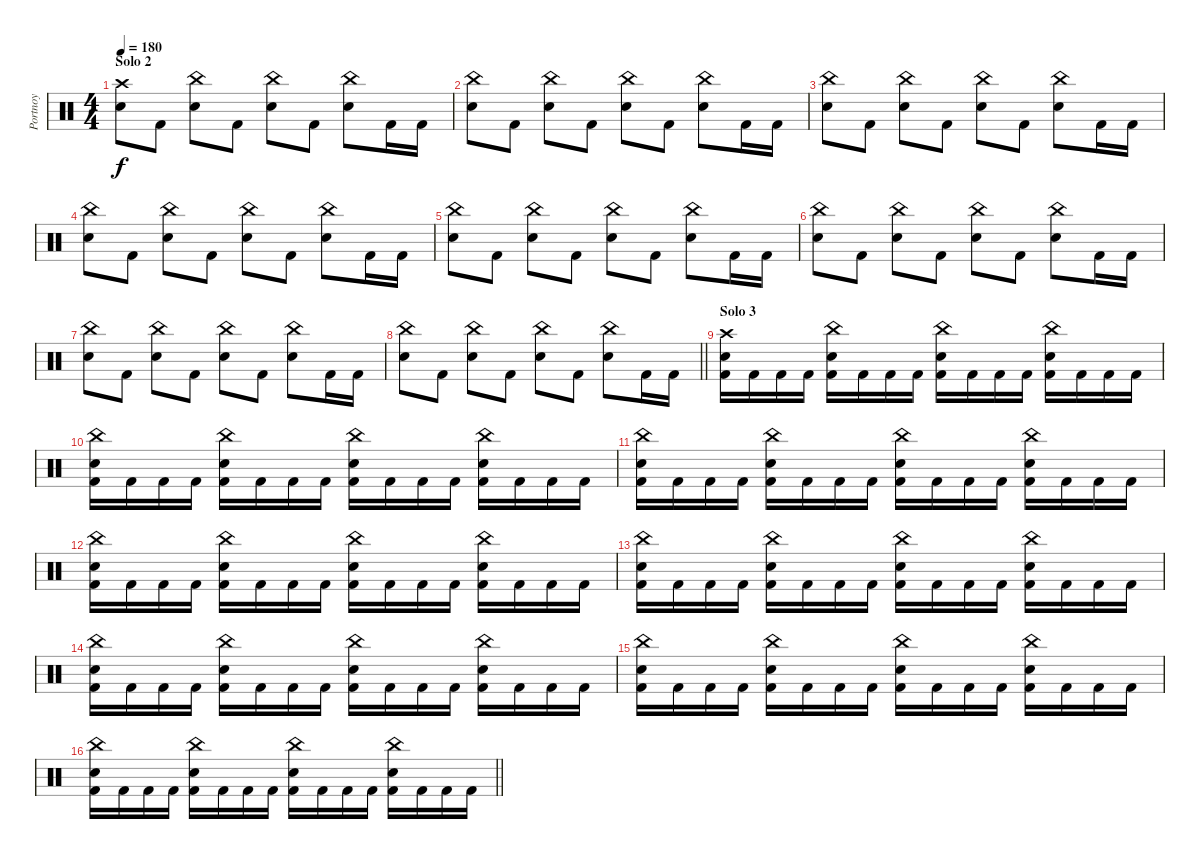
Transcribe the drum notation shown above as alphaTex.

\track ("Portnoy" "Portnoy") {instrument percussion}
\staff {score}
\articulation defaults
\ts (4 4)
\section ("" "Solo 2")
\tempo 180
\clef neutral
\ks c
("Crash high (hit)" "Electric Snare (hit)").8{dy f} "Kick (hit) 2".8 ("China (hit)" "Electric Snare (hit)").8 "Kick (hit) 2".8 ("China (hit)" "Electric Snare (hit)").8 "Kick (hit) 2".8 ("China (hit)" "Electric Snare (hit)").8 "Kick (hit) 2".16 "Kick (hit) 2".16 |
("China (hit)" "Electric Snare (hit)").8 "Kick (hit) 2".8 ("China (hit)" "Electric Snare (hit)").8 "Kick (hit) 2".8 ("China (hit)" "Electric Snare (hit)").8 "Kick (hit) 2".8 ("China (hit)" "Electric Snare (hit)").8 "Kick (hit) 2".16 "Kick (hit) 2".16 |
("China (hit)" "Electric Snare (hit)").8 "Kick (hit) 2".8 ("China (hit)" "Electric Snare (hit)").8 "Kick (hit) 2".8 ("China (hit)" "Electric Snare (hit)").8 "Kick (hit) 2".8 ("China (hit)" "Electric Snare (hit)").8 "Kick (hit) 2".16 "Kick (hit) 2".16 |
("China (hit)" "Electric Snare (hit)").8 "Kick (hit) 2".8 ("China (hit)" "Electric Snare (hit)").8 "Kick (hit) 2".8 ("China (hit)" "Electric Snare (hit)").8 "Kick (hit) 2".8 ("China (hit)" "Electric Snare (hit)").8 "Kick (hit) 2".16 "Kick (hit) 2".16 |
("China (hit)" "Electric Snare (hit)").8 "Kick (hit) 2".8 ("China (hit)" "Electric Snare (hit)").8 "Kick (hit) 2".8 ("China (hit)" "Electric Snare (hit)").8 "Kick (hit) 2".8 ("China (hit)" "Electric Snare (hit)").8 "Kick (hit) 2".16 "Kick (hit) 2".16 |
("China (hit)" "Electric Snare (hit)").8 "Kick (hit) 2".8 ("China (hit)" "Electric Snare (hit)").8 "Kick (hit) 2".8 ("China (hit)" "Electric Snare (hit)").8 "Kick (hit) 2".8 ("China (hit)" "Electric Snare (hit)").8 "Kick (hit) 2".16 "Kick (hit) 2".16 |
("China (hit)" "Electric Snare (hit)").8 "Kick (hit) 2".8 ("China (hit)" "Electric Snare (hit)").8 "Kick (hit) 2".8 ("China (hit)" "Electric Snare (hit)").8 "Kick (hit) 2".8 ("China (hit)" "Electric Snare (hit)").8 "Kick (hit) 2".16 "Kick (hit) 2".16 |
\barLineRight lightlight
("China (hit)" "Electric Snare (hit)").8 "Kick (hit) 2".8 ("China (hit)" "Electric Snare (hit)").8 "Kick (hit) 2".8 ("China (hit)" "Electric Snare (hit)").8 "Kick (hit) 2".8 ("China (hit)" "Electric Snare (hit)").8 "Kick (hit) 2".16 "Kick (hit) 2".16 |
\section ("" "Solo 3")
("Crash high (hit)" "Electric Snare (hit)" "Kick (hit) 2").16 "Kick (hit) 2".16 "Kick (hit) 2".16 "Kick (hit) 2".16 ("China (hit)" "Electric Snare (hit)" "Kick (hit) 2").16 "Kick (hit) 2".16 "Kick (hit) 2".16 "Kick (hit) 2".16 ("China (hit)" "Electric Snare (hit)" "Kick (hit) 2").16 "Kick (hit) 2".16 "Kick (hit) 2".16 "Kick (hit) 2".16 ("China (hit)" "Electric Snare (hit)" "Kick (hit) 2").16 "Kick (hit) 2".16 "Kick (hit) 2".16 "Kick (hit) 2".16 |
("China (hit)" "Electric Snare (hit)" "Kick (hit) 2").16 "Kick (hit) 2".16 "Kick (hit) 2".16 "Kick (hit) 2".16 ("China (hit)" "Electric Snare (hit)" "Kick (hit) 2").16 "Kick (hit) 2".16 "Kick (hit) 2".16 "Kick (hit) 2".16 ("China (hit)" "Electric Snare (hit)" "Kick (hit) 2").16 "Kick (hit) 2".16 "Kick (hit) 2".16 "Kick (hit) 2".16 ("China (hit)" "Electric Snare (hit)" "Kick (hit) 2").16 "Kick (hit) 2".16 "Kick (hit) 2".16 "Kick (hit) 2".16 |
("China (hit)" "Electric Snare (hit)" "Kick (hit) 2").16 "Kick (hit) 2".16 "Kick (hit) 2".16 "Kick (hit) 2".16 ("China (hit)" "Electric Snare (hit)" "Kick (hit) 2").16 "Kick (hit) 2".16 "Kick (hit) 2".16 "Kick (hit) 2".16 ("China (hit)" "Electric Snare (hit)" "Kick (hit) 2").16 "Kick (hit) 2".16 "Kick (hit) 2".16 "Kick (hit) 2".16 ("China (hit)" "Electric Snare (hit)" "Kick (hit) 2").16 "Kick (hit) 2".16 "Kick (hit) 2".16 "Kick (hit) 2".16 |
("China (hit)" "Electric Snare (hit)" "Kick (hit) 2").16 "Kick (hit) 2".16 "Kick (hit) 2".16 "Kick (hit) 2".16 ("China (hit)" "Electric Snare (hit)" "Kick (hit) 2").16 "Kick (hit) 2".16 "Kick (hit) 2".16 "Kick (hit) 2".16 ("China (hit)" "Electric Snare (hit)" "Kick (hit) 2").16 "Kick (hit) 2".16 "Kick (hit) 2".16 "Kick (hit) 2".16 ("China (hit)" "Electric Snare (hit)" "Kick (hit) 2").16 "Kick (hit) 2".16 "Kick (hit) 2".16 "Kick (hit) 2".16 |
("China (hit)" "Electric Snare (hit)" "Kick (hit) 2").16 "Kick (hit) 2".16 "Kick (hit) 2".16 "Kick (hit) 2".16 ("China (hit)" "Electric Snare (hit)" "Kick (hit) 2").16 "Kick (hit) 2".16 "Kick (hit) 2".16 "Kick (hit) 2".16 ("China (hit)" "Electric Snare (hit)" "Kick (hit) 2").16 "Kick (hit) 2".16 "Kick (hit) 2".16 "Kick (hit) 2".16 ("China (hit)" "Electric Snare (hit)" "Kick (hit) 2").16 "Kick (hit) 2".16 "Kick (hit) 2".16 "Kick (hit) 2".16 |
("China (hit)" "Electric Snare (hit)" "Kick (hit) 2").16 "Kick (hit) 2".16 "Kick (hit) 2".16 "Kick (hit) 2".16 ("China (hit)" "Electric Snare (hit)" "Kick (hit) 2").16 "Kick (hit) 2".16 "Kick (hit) 2".16 "Kick (hit) 2".16 ("China (hit)" "Electric Snare (hit)" "Kick (hit) 2").16 "Kick (hit) 2".16 "Kick (hit) 2".16 "Kick (hit) 2".16 ("China (hit)" "Electric Snare (hit)" "Kick (hit) 2").16 "Kick (hit) 2".16 "Kick (hit) 2".16 "Kick (hit) 2".16 |
("China (hit)" "Electric Snare (hit)" "Kick (hit) 2").16 "Kick (hit) 2".16 "Kick (hit) 2".16 "Kick (hit) 2".16 ("China (hit)" "Electric Snare (hit)" "Kick (hit) 2").16 "Kick (hit) 2".16 "Kick (hit) 2".16 "Kick (hit) 2".16 ("China (hit)" "Electric Snare (hit)" "Kick (hit) 2").16 "Kick (hit) 2".16 "Kick (hit) 2".16 "Kick (hit) 2".16 ("China (hit)" "Electric Snare (hit)" "Kick (hit) 2").16 "Kick (hit) 2".16 "Kick (hit) 2".16 "Kick (hit) 2".16 |
\barLineRight lightlight
("China (hit)" "Electric Snare (hit)" "Kick (hit) 2").16 "Kick (hit) 2".16 "Kick (hit) 2".16 "Kick (hit) 2".16 ("China (hit)" "Electric Snare (hit)" "Kick (hit) 2").16 "Kick (hit) 2".16 "Kick (hit) 2".16 "Kick (hit) 2".16 ("China (hit)" "Electric Snare (hit)" "Kick (hit) 2").16 "Kick (hit) 2".16 "Kick (hit) 2".16 "Kick (hit) 2".16 ("China (hit)" "Electric Snare (hit)" "Kick (hit) 2").16 "Kick (hit) 2".16 "Kick (hit) 2".16 "Kick (hit) 2".16
